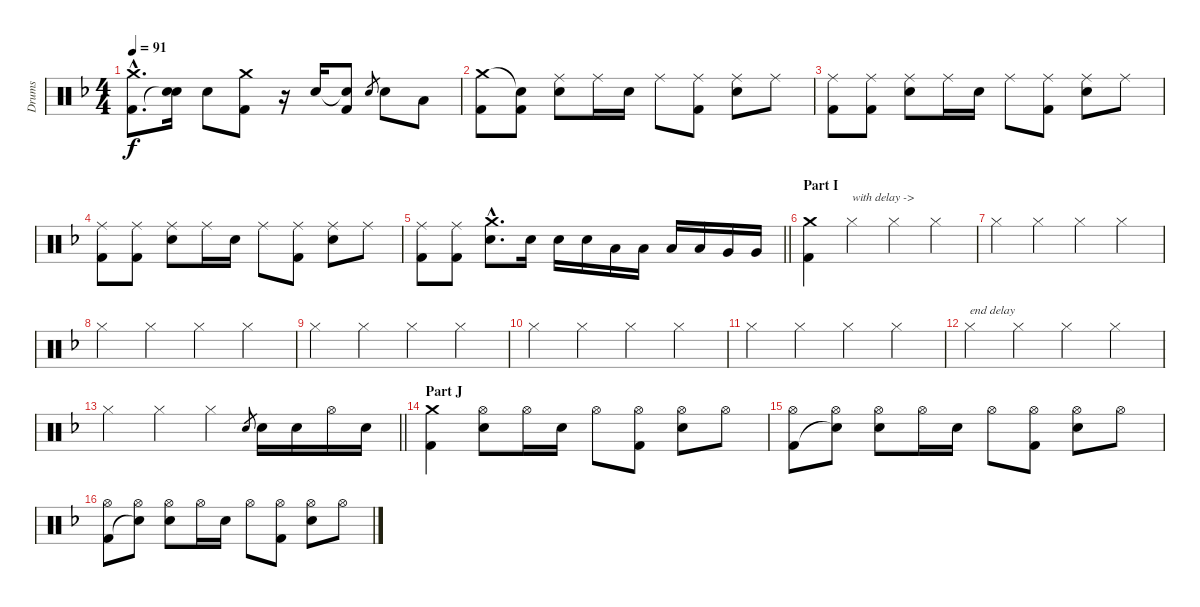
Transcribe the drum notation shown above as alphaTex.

\track ("Drums" "Drums") {instrument percussion}
\staff {score}
\articulation defaults
\ts (4 4)
\tempo 91
\clef neutral
\ks f
("Crash medium (hit)"{hac} "Kick (hit) 2"{hac}).8{d dy f} ("Electric Snare (hit)" "Snare (hit)"{t}).16 "Electric Snare (hit)".8 ("Crash medium (hit)" "Kick (hit) 2").8 r.16 "Electric Snare (hit)".16 ("Snare (hit)"{t} "Kick (hit) 2").8 "Electric Snare (hit)".8{gr} "Electric Snare (hit)".8 "Low Floor Tom (hit)".8 |
("Crash medium (hit)" "Kick (hit) 2").8 ("Snare (hit)"{t} "Kick (hit) 2").8 ("Ride (middle)" "Electric Snare (hit)").8 "Ride (middle)".16 "Electric Snare (hit)".16 "Ride (middle)".8 ("Ride (middle)" "Kick (hit) 2").8 ("Ride (middle)" "Electric Snare (hit)").8 "Ride (middle)".8 |
("Ride (middle)" "Kick (hit) 2").8 ("Ride (middle)" "Kick (hit) 2").8 ("Ride (middle)" "Electric Snare (hit)").8 "Ride (middle)".16 "Electric Snare (hit)".16 "Ride (middle)".8 ("Ride (middle)" "Kick (hit) 2").8 ("Ride (middle)" "Electric Snare (hit)").8 "Ride (middle)".8 |
("Ride (middle)" "Kick (hit) 2").8 ("Ride (middle)" "Kick (hit) 2").8 ("Ride (middle)" "Electric Snare (hit)").8 "Ride (middle)".16 "Electric Snare (hit)".16 "Ride (middle)".8 ("Ride (middle)" "Kick (hit) 2").8 ("Ride (middle)" "Electric Snare (hit)").8 "Ride (middle)".8 |
\barLineRight lightlight
("Ride (middle)" "Kick (hit) 2").8 ("Ride (middle)" "Kick (hit) 2").8 ("Crash medium (hit)"{hac} "Electric Snare (hit)"{hac}).8{d} "Electric Snare (hit)".16 "Electric Snare (hit)".16 "Electric Snare (hit)".16 "Low Tom (hit)".16 "Low Tom (hit)".16 "Low Tom (hit)".16 "Low Tom (hit)".16 "Very Low Tom (hit)".16 "Very Low Tom (hit)".16 |
\section ("" "Part I")
("Crash medium (hit)" "Kick (hit) 2").4 "Hi-Hat (closed)".4{txt "with delay ->"} "Hi-Hat (closed)".4 "Hi-Hat (closed)".4 |
"Hi-Hat (closed)".4 "Hi-Hat (closed)".4 "Hi-Hat (closed)".4 "Hi-Hat (closed)".4 |
"Hi-Hat (closed)".4 "Hi-Hat (closed)".4 "Hi-Hat (closed)".4 "Hi-Hat (closed)".4 |
"Hi-Hat (closed)".4 "Hi-Hat (closed)".4 "Hi-Hat (closed)".4 "Hi-Hat (closed)".4 |
"Hi-Hat (closed)".4 "Hi-Hat (closed)".4 "Hi-Hat (closed)".4 "Hi-Hat (closed)".4 |
"Hi-Hat (closed)".4 "Hi-Hat (closed)".4 "Hi-Hat (closed)".4 "Hi-Hat (closed)".4 |
"Hi-Hat (closed)".4{txt "end delay"} "Hi-Hat (closed)".4 "Hi-Hat (closed)".4 "Hi-Hat (closed)".4 |
\barLineRight lightlight "Hi-Hat (closed)".4 "Hi-Hat (closed)".4 "Hi-Hat (closed)".4 "Electric Snare (hit)".8{gr} "Electric Snare (hit)".16 "Electric Snare (hit)".16 "Hi-Hat (open)".16 "Electric Snare (hit)".16
|
\section ("" "Part J")
("Crash medium (hit)" "Kick (hit) 2").4 ("Hi-Hat (open)" "Electric Snare (hit)").8 "Hi-Hat (open)".16 "Electric Snare (hit)".16 "Hi-Hat (open)".8 ("Hi-Hat (open)" "Kick (hit) 2").8 ("Hi-Hat (open)" "Electric Snare (hit)").8 "Hi-Hat (open)".8 |
("Hi-Hat (open)" "Kick (hit) 2").8 ("Hi-Hat (open)" "Snare (hit)"{t}).8 ("Hi-Hat (open)" "Electric Snare (hit)").8 "Hi-Hat (open)".16 "Electric Snare (hit)".16 "Hi-Hat (open)".8 ("Hi-Hat (open)" "Kick (hit) 2").8 ("Hi-Hat (open)" "Electric Snare (hit)").8 "Hi-Hat (open)".8 |
("Hi-Hat (open)" "Kick (hit) 2").8 ("Hi-Hat (open)" "Snare (hit)"{t}).8 ("Hi-Hat (open)" "Electric Snare (hit)").8 "Hi-Hat (open)".16 "Electric Snare (hit)".16 "Hi-Hat (open)".8 ("Hi-Hat (open)" "Kick (hit) 2").8 ("Hi-Hat (open)" "Electric Snare (hit)").8 "Hi-Hat (open)".8
